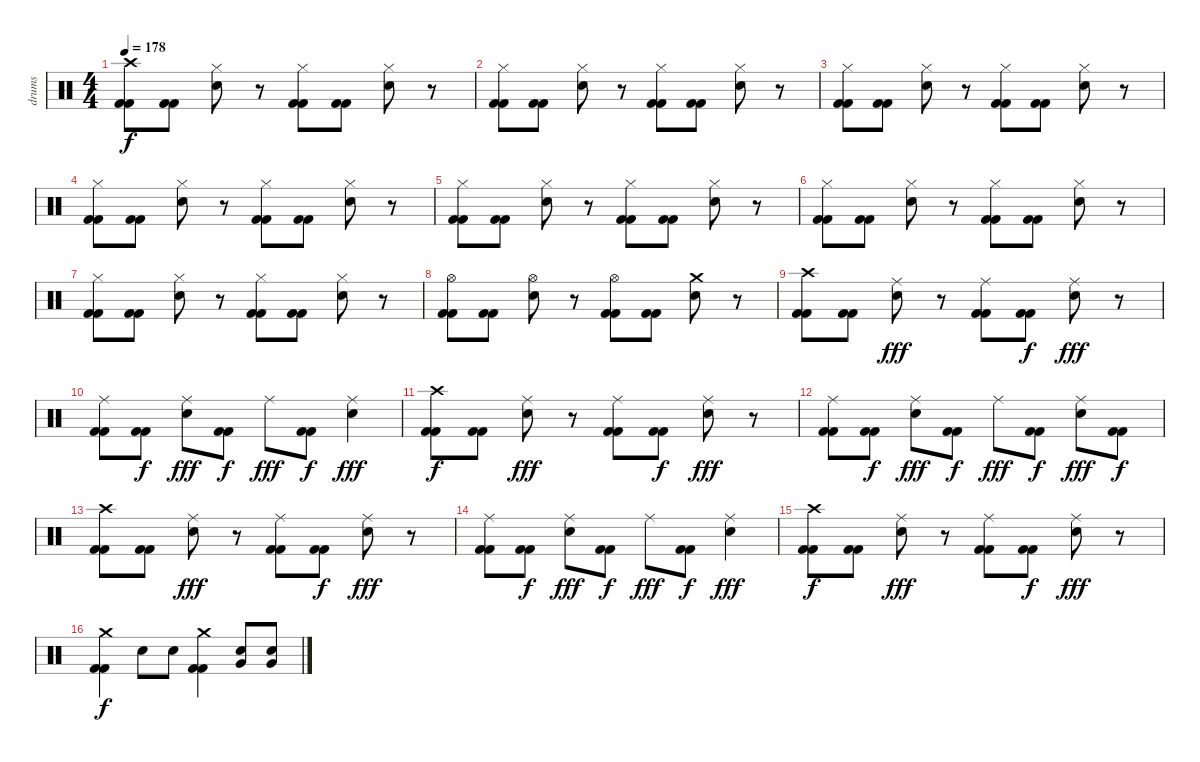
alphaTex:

\track ("drums" "drums") {instrument percussion}
\staff {score}
\articulation defaults
\ts (4 4)
\tempo 178
\clef neutral
\ks c
("Crash high (hit)" "Kick (hit) 2" "Kick (hit) 2").8{dy f} ("Kick (hit) 2" "Kick (hit) 2").8 ("Hi-Hat (closed)" "Electric Snare (hit)").8 r.8 ("Hi-Hat (closed)" "Kick (hit) 2" "Kick (hit) 2").8 ("Kick (hit) 2" "Kick (hit) 2").8 ("Hi-Hat (closed)" "Electric Snare (hit)").8 r.8 |
("Hi-Hat (closed)" "Kick (hit) 2" "Kick (hit) 2").8 ("Kick (hit) 2" "Kick (hit) 2").8 ("Hi-Hat (closed)" "Electric Snare (hit)").8 r.8 ("Hi-Hat (closed)" "Kick (hit) 2" "Kick (hit) 2").8 ("Kick (hit) 2" "Kick (hit) 2").8 ("Hi-Hat (closed)" "Electric Snare (hit)").8 r.8 |
("Hi-Hat (closed)" "Kick (hit) 2" "Kick (hit) 2").8 ("Kick (hit) 2" "Kick (hit) 2").8 ("Hi-Hat (closed)" "Electric Snare (hit)").8 r.8 ("Hi-Hat (closed)" "Kick (hit) 2" "Kick (hit) 2").8 ("Kick (hit) 2" "Kick (hit) 2").8 ("Hi-Hat (closed)" "Electric Snare (hit)").8 r.8 |
("Hi-Hat (closed)" "Kick (hit) 2" "Kick (hit) 2").8 ("Kick (hit) 2" "Kick (hit) 2").8 ("Hi-Hat (closed)" "Electric Snare (hit)").8 r.8 ("Hi-Hat (closed)" "Kick (hit) 2" "Kick (hit) 2").8 ("Kick (hit) 2" "Kick (hit) 2").8 ("Hi-Hat (closed)" "Electric Snare (hit)").8 r.8 |
("Hi-Hat (closed)" "Kick (hit) 2" "Kick (hit) 2").8 ("Kick (hit) 2" "Kick (hit) 2").8 ("Hi-Hat (closed)" "Electric Snare (hit)").8 r.8 ("Hi-Hat (closed)" "Kick (hit) 2" "Kick (hit) 2").8 ("Kick (hit) 2" "Kick (hit) 2").8 ("Hi-Hat (closed)" "Electric Snare (hit)").8 r.8 |
("Hi-Hat (closed)" "Kick (hit) 2" "Kick (hit) 2").8 ("Kick (hit) 2" "Kick (hit) 2").8 ("Hi-Hat (closed)" "Electric Snare (hit)").8 r.8 ("Hi-Hat (closed)" "Kick (hit) 2" "Kick (hit) 2").8 ("Kick (hit) 2" "Kick (hit) 2").8 ("Hi-Hat (closed)" "Electric Snare (hit)").8 r.8 |
("Hi-Hat (closed)" "Kick (hit) 2" "Kick (hit) 2").8 ("Kick (hit) 2" "Kick (hit) 2").8 ("Hi-Hat (closed)" "Electric Snare (hit)").8 r.8 ("Hi-Hat (closed)" "Kick (hit) 2" "Kick (hit) 2").8 ("Kick (hit) 2" "Kick (hit) 2").8 ("Hi-Hat (closed)" "Electric Snare (hit)").8 r.8 |
("Hi-Hat (open)" "Kick (hit) 2" "Kick (hit) 2").8 ("Kick (hit) 2" "Kick (hit) 2").8 ("Hi-Hat (open)" "Electric Snare (hit)").8 r.8 ("Hi-Hat (open)" "Kick (hit) 2" "Kick (hit) 2").8 ("Kick (hit) 2" "Kick (hit) 2").8 ("Crash medium (hit)" "Electric Snare (hit)").8 r.8 |
("Crash high (hit)" "Kick (hit) 2" "Kick (hit) 2").8 ("Kick (hit) 2" "Kick (hit) 2").8 ("Ride (middle)" "Electric Snare (hit)").8{dy fff} r.8 ("Ride (middle)" "Kick (hit) 2" "Kick (hit) 2").8 ("Kick (hit) 2" "Kick (hit) 2").8{dy f} ("Ride (middle)" "Electric Snare (hit)").8{dy fff} r.8 |
("Ride (middle)" "Kick (hit) 2" "Kick (hit) 2").8 ("Kick (hit) 2" "Kick (hit) 2").8{dy f} ("Ride (middle)" "Electric Snare (hit)").8{dy fff} ("Kick (hit) 2" "Kick (hit) 2").8{dy f} "Ride (middle)".8{dy fff} ("Kick (hit) 2" "Kick (hit) 2").8{dy f} ("Ride (middle)" "Electric Snare (hit)").4{dy fff} |
("Crash high (hit)" "Kick (hit) 2" "Kick (hit) 2").8{dy f} ("Kick (hit) 2" "Kick (hit) 2").8 ("Ride (middle)" "Electric Snare (hit)").8{dy fff} r.8 ("Ride (middle)" "Kick (hit) 2" "Kick (hit) 2").8 ("Kick (hit) 2" "Kick (hit) 2").8{dy f} ("Ride (middle)" "Electric Snare (hit)").8{dy fff} r.8 |
("Ride (middle)" "Kick (hit) 2" "Kick (hit) 2").8 ("Kick (hit) 2" "Kick (hit) 2").8{dy f} ("Ride (middle)" "Electric Snare (hit)").8{dy fff} ("Kick (hit) 2" "Kick (hit) 2").8{dy f} "Ride (middle)".8{dy fff} ("Kick (hit) 2" "Kick (hit) 2").8{dy f} ("Ride (middle)" "Electric Snare (hit)").8{dy fff} ("Kick (hit) 2" "Kick (hit) 2").8{dy f} |
("Crash high (hit)" "Kick (hit) 2" "Kick (hit) 2").8 ("Kick (hit) 2" "Kick (hit) 2").8 ("Ride (middle)" "Electric Snare (hit)").8{dy fff} r.8 ("Ride (middle)" "Kick (hit) 2" "Kick (hit) 2").8 ("Kick (hit) 2" "Kick (hit) 2").8{dy f} ("Ride (middle)" "Electric Snare (hit)").8{dy fff} r.8 |
("Ride (middle)" "Kick (hit) 2" "Kick (hit) 2").8 ("Kick (hit) 2" "Kick (hit) 2").8{dy f} ("Ride (middle)" "Electric Snare (hit)").8{dy fff} ("Kick (hit) 2" "Kick (hit) 2").8{dy f} "Ride (middle)".8{dy fff} ("Kick (hit) 2" "Kick (hit) 2").8{dy f} ("Ride (middle)" "Electric Snare (hit)").4{dy fff} |
("Crash high (hit)" "Kick (hit) 2" "Kick (hit) 2").8{dy f} ("Kick (hit) 2" "Kick (hit) 2").8 ("Ride (middle)" "Electric Snare (hit)").8{dy fff} r.8 ("Ride (middle)" "Kick (hit) 2" "Kick (hit) 2").8 ("Kick (hit) 2" "Kick (hit) 2").8{dy f} ("Ride (middle)" "Electric Snare (hit)").8{dy fff} r.8 |
("Crash medium (hit)" "Kick (hit) 2" "Kick (hit) 2").4{dy f} "Electric Snare (hit)".8 "Electric Snare (hit)".8 ("Crash medium (hit)" "Kick (hit) 2" "Kick (hit) 2").4 ("Very Low Tom (hit)" "Electric Snare (hit)").8 ("Very Low Tom (hit)" "Electric Snare (hit)").8
